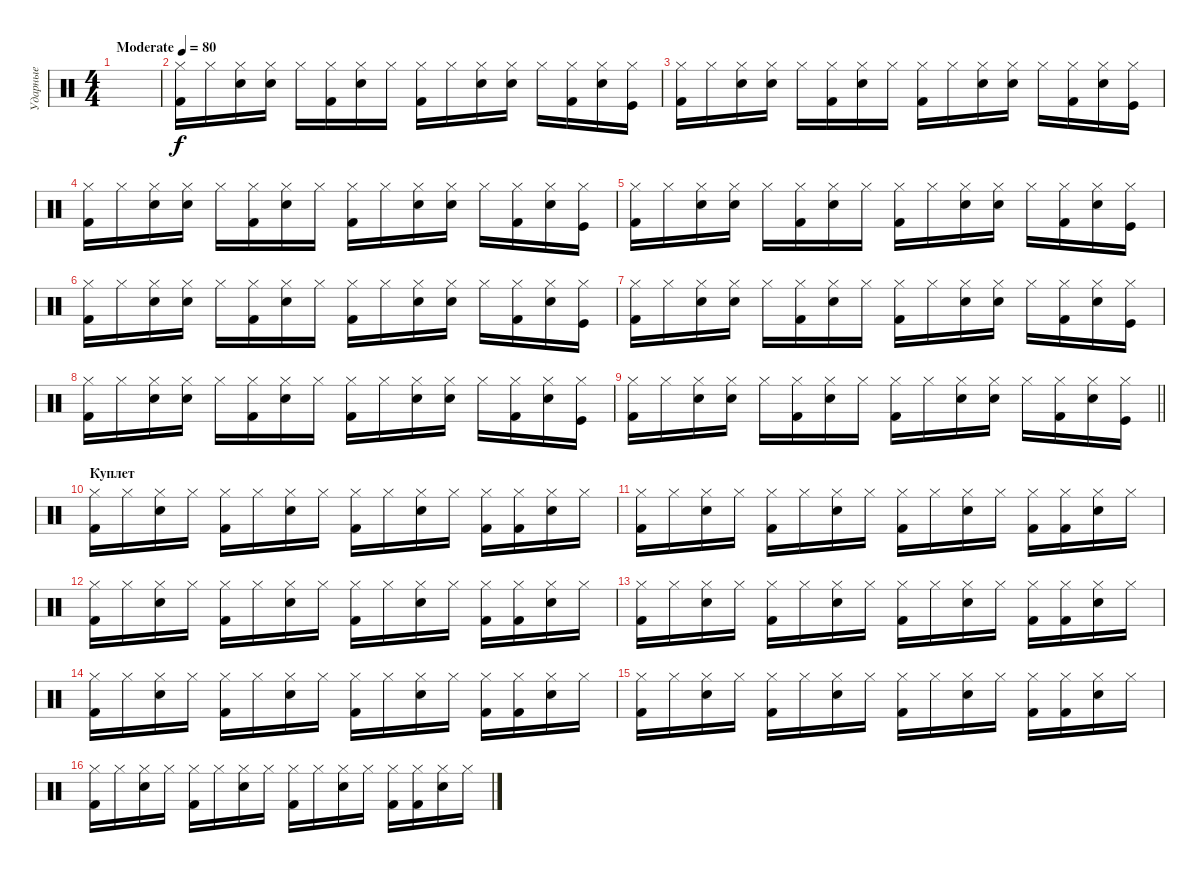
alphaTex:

\track ("Ударные" "Ударные") {instrument percussion}
\staff {score}
\articulation defaults
\ts (4 4)
\tempo (80 "Moderate")
\clef neutral
\ks c
|
("Hi-Hat (closed)" "Kick (hit) 2").16 "Hi-Hat (closed)".16 ("Hi-Hat (closed)" "Electric Snare (hit)").16 ("Hi-Hat (closed)" "Electric Snare (hit)").16 "Hi-Hat (closed)".16 ("Hi-Hat (closed)" "Kick (hit) 2").16 ("Hi-Hat (closed)" "Electric Snare (hit)").16 "Hi-Hat (closed)".16 ("Hi-Hat (closed)" "Kick (hit) 2").16 "Hi-Hat (closed)".16 ("Hi-Hat (closed)" "Electric Snare (hit)").16 ("Hi-Hat (closed)" "Electric Snare (hit)").16 "Hi-Hat (closed)".16 ("Hi-Hat (closed)" "Kick (hit) 2").16 ("Hi-Hat (closed)" "Electric Snare (hit)").16 ("Hi-Hat (closed)" "Kick (hit)").16 |
("Hi-Hat (closed)" "Kick (hit) 2").16 "Hi-Hat (closed)".16 ("Hi-Hat (closed)" "Electric Snare (hit)").16 ("Hi-Hat (closed)" "Electric Snare (hit)").16 "Hi-Hat (closed)".16 ("Hi-Hat (closed)" "Kick (hit) 2").16 ("Hi-Hat (closed)" "Electric Snare (hit)").16 "Hi-Hat (closed)".16 ("Hi-Hat (closed)" "Kick (hit) 2").16 "Hi-Hat (closed)".16 ("Hi-Hat (closed)" "Electric Snare (hit)").16 ("Hi-Hat (closed)" "Electric Snare (hit)").16 "Hi-Hat (closed)".16 ("Hi-Hat (closed)" "Kick (hit) 2").16 ("Hi-Hat (closed)" "Electric Snare (hit)").16 ("Hi-Hat (closed)" "Kick (hit)").16 |
("Hi-Hat (closed)" "Kick (hit) 2").16 "Hi-Hat (closed)".16 ("Hi-Hat (closed)" "Electric Snare (hit)").16 ("Hi-Hat (closed)" "Electric Snare (hit)").16 "Hi-Hat (closed)".16 ("Hi-Hat (closed)" "Kick (hit) 2").16 ("Hi-Hat (closed)" "Electric Snare (hit)").16 "Hi-Hat (closed)".16 ("Hi-Hat (closed)" "Kick (hit) 2").16 "Hi-Hat (closed)".16 ("Hi-Hat (closed)" "Electric Snare (hit)").16 ("Hi-Hat (closed)" "Electric Snare (hit)").16 "Hi-Hat (closed)".16 ("Hi-Hat (closed)" "Kick (hit) 2").16 ("Hi-Hat (closed)" "Electric Snare (hit)").16 ("Hi-Hat (closed)" "Kick (hit)").16 |
("Hi-Hat (closed)" "Kick (hit) 2").16 "Hi-Hat (closed)".16 ("Hi-Hat (closed)" "Electric Snare (hit)").16 ("Hi-Hat (closed)" "Electric Snare (hit)").16 "Hi-Hat (closed)".16 ("Hi-Hat (closed)" "Kick (hit) 2").16 ("Hi-Hat (closed)" "Electric Snare (hit)").16 "Hi-Hat (closed)".16 ("Hi-Hat (closed)" "Kick (hit) 2").16 "Hi-Hat (closed)".16 ("Hi-Hat (closed)" "Electric Snare (hit)").16 ("Hi-Hat (closed)" "Electric Snare (hit)").16 "Hi-Hat (closed)".16 ("Hi-Hat (closed)" "Kick (hit) 2").16 ("Hi-Hat (closed)" "Electric Snare (hit)").16 ("Hi-Hat (closed)" "Kick (hit)").16 |
("Hi-Hat (closed)" "Kick (hit) 2").16 "Hi-Hat (closed)".16 ("Hi-Hat (closed)" "Electric Snare (hit)").16 ("Hi-Hat (closed)" "Electric Snare (hit)").16 "Hi-Hat (closed)".16 ("Hi-Hat (closed)" "Kick (hit) 2").16 ("Hi-Hat (closed)" "Electric Snare (hit)").16 "Hi-Hat (closed)".16 ("Hi-Hat (closed)" "Kick (hit) 2").16 "Hi-Hat (closed)".16 ("Hi-Hat (closed)" "Electric Snare (hit)").16 ("Hi-Hat (closed)" "Electric Snare (hit)").16 "Hi-Hat (closed)".16 ("Hi-Hat (closed)" "Kick (hit) 2").16 ("Hi-Hat (closed)" "Electric Snare (hit)").16 ("Hi-Hat (closed)" "Kick (hit)").16 |
("Hi-Hat (closed)" "Kick (hit) 2").16 "Hi-Hat (closed)".16 ("Hi-Hat (closed)" "Electric Snare (hit)").16 ("Hi-Hat (closed)" "Electric Snare (hit)").16 "Hi-Hat (closed)".16 ("Hi-Hat (closed)" "Kick (hit) 2").16 ("Hi-Hat (closed)" "Electric Snare (hit)").16 "Hi-Hat (closed)".16 ("Hi-Hat (closed)" "Kick (hit) 2").16 "Hi-Hat (closed)".16 ("Hi-Hat (closed)" "Electric Snare (hit)").16 ("Hi-Hat (closed)" "Electric Snare (hit)").16 "Hi-Hat (closed)".16 ("Hi-Hat (closed)" "Kick (hit) 2").16 ("Hi-Hat (closed)" "Electric Snare (hit)").16 ("Hi-Hat (closed)" "Kick (hit)").16 |
("Hi-Hat (closed)" "Kick (hit) 2").16 "Hi-Hat (closed)".16 ("Hi-Hat (closed)" "Electric Snare (hit)").16 ("Hi-Hat (closed)" "Electric Snare (hit)").16 "Hi-Hat (closed)".16 ("Hi-Hat (closed)" "Kick (hit) 2").16 ("Hi-Hat (closed)" "Electric Snare (hit)").16 "Hi-Hat (closed)".16 ("Hi-Hat (closed)" "Kick (hit) 2").16 "Hi-Hat (closed)".16 ("Hi-Hat (closed)" "Electric Snare (hit)").16 ("Hi-Hat (closed)" "Electric Snare (hit)").16 "Hi-Hat (closed)".16 ("Hi-Hat (closed)" "Kick (hit) 2").16 ("Hi-Hat (closed)" "Electric Snare (hit)").16 ("Hi-Hat (closed)" "Kick (hit)").16 |
\barLineRight lightlight
("Hi-Hat (closed)" "Kick (hit) 2").16 "Hi-Hat (closed)".16 ("Hi-Hat (closed)" "Electric Snare (hit)").16 ("Hi-Hat (closed)" "Electric Snare (hit)").16 "Hi-Hat (closed)".16 ("Hi-Hat (closed)" "Kick (hit) 2").16 ("Hi-Hat (closed)" "Electric Snare (hit)").16 "Hi-Hat (closed)".16 ("Hi-Hat (closed)" "Kick (hit) 2").16 "Hi-Hat (closed)".16 ("Hi-Hat (closed)" "Electric Snare (hit)").16 ("Hi-Hat (closed)" "Electric Snare (hit)").16 "Hi-Hat (closed)".16 ("Hi-Hat (closed)" "Kick (hit) 2").16 ("Hi-Hat (closed)" "Electric Snare (hit)").16 ("Hi-Hat (closed)" "Kick (hit)").16 |
\section ("" "Куплет")
("Hi-Hat (closed)" "Kick (hit) 2").16 "Hi-Hat (closed)".16 ("Hi-Hat (closed)" "Electric Snare (hit)").16 "Hi-Hat (closed)".16 ("Hi-Hat (closed)" "Kick (hit) 2").16 "Hi-Hat (closed)".16 ("Hi-Hat (closed)" "Electric Snare (hit)").16 "Hi-Hat (closed)".16 ("Hi-Hat (closed)" "Kick (hit) 2").16 "Hi-Hat (closed)".16 ("Hi-Hat (closed)" "Electric Snare (hit)").16 "Hi-Hat (closed)".16 ("Hi-Hat (closed)" "Kick (hit) 2").16 ("Hi-Hat (closed)" "Kick (hit) 2").16 ("Hi-Hat (closed)" "Electric Snare (hit)").16 "Hi-Hat (closed)".16 |
("Hi-Hat (closed)" "Kick (hit) 2").16 "Hi-Hat (closed)".16 ("Hi-Hat (closed)" "Electric Snare (hit)").16 "Hi-Hat (closed)".16 ("Hi-Hat (closed)" "Kick (hit) 2").16 "Hi-Hat (closed)".16 ("Hi-Hat (closed)" "Electric Snare (hit)").16 "Hi-Hat (closed)".16 ("Hi-Hat (closed)" "Kick (hit) 2").16 "Hi-Hat (closed)".16 ("Hi-Hat (closed)" "Electric Snare (hit)").16 "Hi-Hat (closed)".16 ("Hi-Hat (closed)" "Kick (hit) 2").16 ("Hi-Hat (closed)" "Kick (hit) 2").16 ("Hi-Hat (closed)" "Electric Snare (hit)").16 "Hi-Hat (closed)".16 |
("Hi-Hat (closed)" "Kick (hit) 2").16 "Hi-Hat (closed)".16 ("Hi-Hat (closed)" "Electric Snare (hit)").16 "Hi-Hat (closed)".16 ("Hi-Hat (closed)" "Kick (hit) 2").16 "Hi-Hat (closed)".16 ("Hi-Hat (closed)" "Electric Snare (hit)").16 "Hi-Hat (closed)".16 ("Hi-Hat (closed)" "Kick (hit) 2").16 "Hi-Hat (closed)".16 ("Hi-Hat (closed)" "Electric Snare (hit)").16 "Hi-Hat (closed)".16 ("Hi-Hat (closed)" "Kick (hit) 2").16 ("Hi-Hat (closed)" "Kick (hit) 2").16 ("Hi-Hat (closed)" "Electric Snare (hit)").16 "Hi-Hat (closed)".16 |
("Hi-Hat (closed)" "Kick (hit) 2").16 "Hi-Hat (closed)".16 ("Hi-Hat (closed)" "Electric Snare (hit)").16 "Hi-Hat (closed)".16 ("Hi-Hat (closed)" "Kick (hit) 2").16 "Hi-Hat (closed)".16 ("Hi-Hat (closed)" "Electric Snare (hit)").16 "Hi-Hat (closed)".16 ("Hi-Hat (closed)" "Kick (hit) 2").16 "Hi-Hat (closed)".16 ("Hi-Hat (closed)" "Electric Snare (hit)").16 "Hi-Hat (closed)".16 ("Hi-Hat (closed)" "Kick (hit) 2").16 ("Hi-Hat (closed)" "Kick (hit) 2").16 ("Hi-Hat (closed)" "Electric Snare (hit)").16 "Hi-Hat (closed)".16 |
("Hi-Hat (closed)" "Kick (hit) 2").16 "Hi-Hat (closed)".16 ("Hi-Hat (closed)" "Electric Snare (hit)").16 "Hi-Hat (closed)".16 ("Hi-Hat (closed)" "Kick (hit) 2").16 "Hi-Hat (closed)".16 ("Hi-Hat (closed)" "Electric Snare (hit)").16 "Hi-Hat (closed)".16 ("Hi-Hat (closed)" "Kick (hit) 2").16 "Hi-Hat (closed)".16 ("Hi-Hat (closed)" "Electric Snare (hit)").16 "Hi-Hat (closed)".16 ("Hi-Hat (closed)" "Kick (hit) 2").16 ("Hi-Hat (closed)" "Kick (hit) 2").16 ("Hi-Hat (closed)" "Electric Snare (hit)").16 "Hi-Hat (closed)".16 |
("Hi-Hat (closed)" "Kick (hit) 2").16 "Hi-Hat (closed)".16 ("Hi-Hat (closed)" "Electric Snare (hit)").16 "Hi-Hat (closed)".16 ("Hi-Hat (closed)" "Kick (hit) 2").16 "Hi-Hat (closed)".16 ("Hi-Hat (closed)" "Electric Snare (hit)").16 "Hi-Hat (closed)".16 ("Hi-Hat (closed)" "Kick (hit) 2").16 "Hi-Hat (closed)".16 ("Hi-Hat (closed)" "Electric Snare (hit)").16 "Hi-Hat (closed)".16 ("Hi-Hat (closed)" "Kick (hit) 2").16 ("Hi-Hat (closed)" "Kick (hit) 2").16 ("Hi-Hat (closed)" "Electric Snare (hit)").16 "Hi-Hat (closed)".16 |
("Hi-Hat (closed)" "Kick (hit) 2").16 "Hi-Hat (closed)".16 ("Hi-Hat (closed)" "Electric Snare (hit)").16 "Hi-Hat (closed)".16 ("Hi-Hat (closed)" "Kick (hit) 2").16 "Hi-Hat (closed)".16 ("Hi-Hat (closed)" "Electric Snare (hit)").16 "Hi-Hat (closed)".16 ("Hi-Hat (closed)" "Kick (hit) 2").16 "Hi-Hat (closed)".16 ("Hi-Hat (closed)" "Electric Snare (hit)").16 "Hi-Hat (closed)".16 ("Hi-Hat (closed)" "Kick (hit) 2").16 ("Hi-Hat (closed)" "Kick (hit) 2").16 ("Hi-Hat (closed)" "Electric Snare (hit)").16 "Hi-Hat (closed)".16
